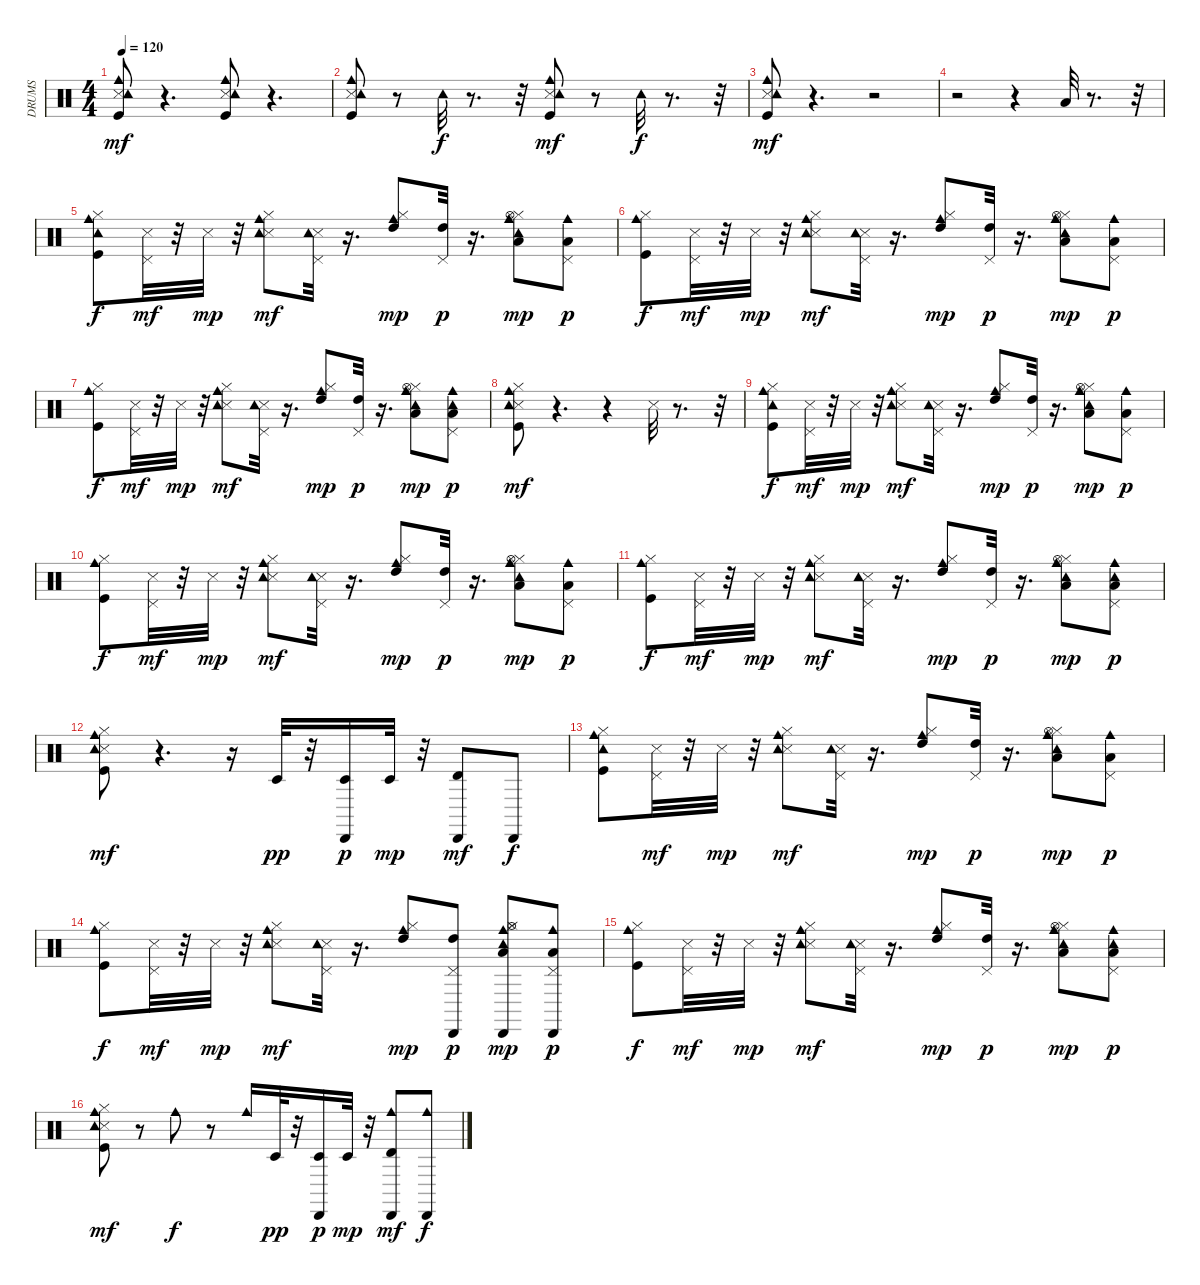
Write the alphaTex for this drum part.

\track ("DRUMS               " "DRUMS     ") {instrument percussion}
\staff {score}
\articulation defaults
\ts (4 4)
\tempo 120
\clef neutral
\ks c
("Kick (hit)" "Snare (side stick) 3" "Cowbell medium (hit)" "Tambourine (hit)").8{dy mf} r.4{d} ("Kick (hit)" "Snare (side stick) 3" "Tambourine (hit)" "Cowbell medium (hit)").8 r.4{d} |
("Kick (hit)" "Snare (side stick) 3" "Cowbell medium (hit)" "Tambourine (hit)").8 r.8 "Tambourine (hit)".32{dy f} r.8{d} r.32 ("Kick (hit)" "Snare (side stick) 3" "Tambourine (hit)" "Cowbell medium (hit)").8{dy mf} r.8 "Tambourine (hit)".32{dy f} r.8{d} r.32 |
("Kick (hit)" "Snare (side stick) 3" "Tambourine (hit)" "Cowbell medium (hit)").8{dy mf} r.4{d} r.2 |
r.2 r.4 "Low Floor Tom (hit)".32 r.8{d} r.32 |
("Kick (hit)" "Hi-Hat (closed)" "Tambourine (hit)" "Cowbell medium (hit)").8{dy f} ("Snare (side stick) 3" "Pedal Hi-Hat (hit)").32{dy mf} r.32 "Snare (side stick) 3".32{dy mp} r.32 ("Snare (side stick) 3" "Hi-Hat (closed)" "Tambourine (hit)" "Cowbell medium (hit)").8{dy mf} ("Snare (side stick) 3" "Pedal Hi-Hat (hit)" "Tambourine (hit)").32 r.16{d} ("High Tom (hit)" "Hi-Hat (closed)" "Cowbell medium (hit)").8{dy mp} ("High Tom (hit)" "Pedal Hi-Hat (hit)").32{dy p} r.16{d} ("Low Floor Tom (hit)" "Hi-Hat (closed)" "Tambourine (hit)" "Hi-Hat (open)" "Cowbell medium (hit)").8{dy mp} ("Low Floor Tom (hit)" "Pedal Hi-Hat (hit)" "Cowbell medium (hit)").8{dy p} |
("Kick (hit)" "Hi-Hat (closed)" "Cowbell medium (hit)").8{dy f} ("Snare (side stick) 3" "Pedal Hi-Hat (hit)").32{dy mf} r.32 "Snare (side stick) 3".32{dy mp} r.32 ("Snare (side stick) 3" "Hi-Hat (closed)" "Tambourine (hit)" "Cowbell medium (hit)").8{dy mf} ("Snare (side stick) 3" "Pedal Hi-Hat (hit)" "Tambourine (hit)").32 r.16{d} ("High Tom (hit)" "Hi-Hat (closed)" "Cowbell medium (hit)").8{dy mp} ("High Tom (hit)" "Pedal Hi-Hat (hit)").32{dy p} r.16{d} ("Low Floor Tom (hit)" "Hi-Hat (closed)" "Tambourine (hit)" "Hi-Hat (open)" "Cowbell medium (hit)").8{dy mp} ("Low Floor Tom (hit)" "Pedal Hi-Hat (hit)" "Cowbell medium (hit)").8{dy p} |
("Kick (hit)" "Hi-Hat (closed)" "Cowbell medium (hit)").8{dy f} ("Snare (side stick) 3" "Pedal Hi-Hat (hit)").32{dy mf} r.32 "Snare (side stick) 3".32{dy mp} r.32 ("Snare (side stick) 3" "Hi-Hat (closed)" "Tambourine (hit)" "Cowbell medium (hit)").8{dy mf} ("Snare (side stick) 3" "Pedal Hi-Hat (hit)" "Tambourine (hit)").32 r.16{d} ("High Tom (hit)" "Hi-Hat (closed)" "Cowbell medium (hit)").8{dy mp} ("High Tom (hit)" "Pedal Hi-Hat (hit)").32{dy p} r.16{d} ("Low Floor Tom (hit)" "Hi-Hat (closed)" "Tambourine (hit)" "Hi-Hat (open)" "Cowbell medium (hit)").8{dy mp} ("Low Floor Tom (hit)" "Pedal Hi-Hat (hit)" "Tambourine (hit)" "Cowbell medium (hit)").8{dy p} |
("Kick (hit)" "Snare (side stick) 3" "Hi-Hat (closed)" "Cowbell medium (hit)" "Tambourine (hit)").8{dy mf} r.4{d} r.4 "Snare (side stick) 3".32 r.8{d} r.32 |
("Kick (hit)" "Hi-Hat (closed)" "Tambourine (hit)" "Cowbell medium (hit)").8{dy f} ("Snare (side stick) 3" "Pedal Hi-Hat (hit)").32{dy mf} r.32 "Snare (side stick) 3".32{dy mp} r.32 ("Snare (side stick) 3" "Hi-Hat (closed)" "Tambourine (hit)" "Cowbell medium (hit)").8{dy mf} ("Snare (side stick) 3" "Pedal Hi-Hat (hit)" "Tambourine (hit)").32 r.16{d} ("High Tom (hit)" "Hi-Hat (closed)" "Cowbell medium (hit)").8{dy mp} ("High Tom (hit)" "Pedal Hi-Hat (hit)").32{dy p} r.16{d} ("Low Floor Tom (hit)" "Hi-Hat (closed)" "Hi-Hat (open)" "Cowbell medium (hit)" "Tambourine (hit)").8{dy mp} ("Low Floor Tom (hit)" "Pedal Hi-Hat (hit)" "Cowbell medium (hit)").8{dy p} |
("Kick (hit)" "Hi-Hat (closed)" "Cowbell medium (hit)").8{dy f} ("Snare (side stick) 3" "Pedal Hi-Hat (hit)").32{dy mf} r.32 "Snare (side stick) 3".32{dy mp} r.32 ("Snare (side stick) 3" "Hi-Hat (closed)" "Tambourine (hit)" "Cowbell medium (hit)").8{dy mf} ("Snare (side stick) 3" "Pedal Hi-Hat (hit)" "Tambourine (hit)").32 r.16{d} ("High Tom (hit)" "Hi-Hat (closed)" "Cowbell medium (hit)").8{dy mp} ("High Tom (hit)" "Pedal Hi-Hat (hit)").32{dy p} r.16{d} ("Low Floor Tom (hit)" "Hi-Hat (closed)" "Hi-Hat (open)" "Cowbell medium (hit)" "Tambourine (hit)").8{dy mp} ("Low Floor Tom (hit)" "Pedal Hi-Hat (hit)" "Cowbell medium (hit)").8{dy p} |
("Kick (hit)" "Hi-Hat (closed)" "Cowbell medium (hit)").8{dy f} ("Snare (side stick) 3" "Pedal Hi-Hat (hit)").32{dy mf} r.32 "Snare (side stick) 3".32{dy mp} r.32 ("Snare (side stick) 3" "Hi-Hat (closed)" "Tambourine (hit)" "Cowbell medium (hit)").8{dy mf} ("Snare (side stick) 3" "Pedal Hi-Hat (hit)" "Tambourine (hit)").32 r.16{d} ("High Tom (hit)" "Hi-Hat (closed)" "Cowbell medium (hit)").8{dy mp} ("High Tom (hit)" "Pedal Hi-Hat (hit)").32{dy p} r.16{d} ("Low Floor Tom (hit)" "Hi-Hat (closed)" "Tambourine (hit)" "Hi-Hat (open)" "Cowbell medium (hit)").8{dy mp} ("Low Floor Tom (hit)" "Pedal Hi-Hat (hit)" "Tambourine (hit)" "Cowbell medium (hit)").8{dy p} |
("Kick (hit)" "Snare (side stick) 3" "Hi-Hat (closed)" "Tambourine (hit)" "Cowbell medium (hit)").8{dy mf} r.4{d} r.16 "Timbale low (hit)".32{dy pp} r.32 ("Timbale low (hit)" "Cabasa (hit)").16{dy p} "Timbale low (hit)".32{dy mp} r.32 ("Timbale high (hit)" "Cabasa (hit)").8{dy mf} "Cabasa (hit)".8{dy f} |
("Kick (hit)" "Hi-Hat (closed)" "Tambourine (hit)" "Cowbell medium (hit)").8 ("Snare (side stick) 3" "Pedal Hi-Hat (hit)").32{dy mf} r.32 "Snare (side stick) 3".32{dy mp} r.32 ("Snare (side stick) 3" "Hi-Hat (closed)" "Tambourine (hit)" "Cowbell medium (hit)").8{dy mf} ("Snare (side stick) 3" "Pedal Hi-Hat (hit)" "Tambourine (hit)").32 r.16{d} ("High Tom (hit)" "Hi-Hat (closed)" "Cowbell medium (hit)").8{dy mp} ("High Tom (hit)" "Pedal Hi-Hat (hit)").32{dy p} r.16{d} ("Low Floor Tom (hit)" "Hi-Hat (closed)" "Tambourine (hit)" "Hi-Hat (open)" "Cowbell medium (hit)").8{dy mp} ("Low Floor Tom (hit)" "Pedal Hi-Hat (hit)" "Cowbell medium (hit)").8{dy p} |
("Kick (hit)" "Hi-Hat (closed)" "Cowbell medium (hit)").8{dy f} ("Snare (side stick) 3" "Pedal Hi-Hat (hit)").32{dy mf} r.32 "Snare (side stick) 3".32{dy mp} r.32 ("Snare (side stick) 3" "Hi-Hat (closed)" "Tambourine (hit)" "Cowbell medium (hit)").8{dy mf} ("Snare (side stick) 3" "Pedal Hi-Hat (hit)" "Tambourine (hit)").32 r.16{d} ("High Tom (hit)" "Hi-Hat (closed)" "Cowbell medium (hit)").8{dy mp} ("High Tom (hit)" "Pedal Hi-Hat (hit)" "Cabasa (hit)").8{dy p} ("Low Floor Tom (hit)" "Hi-Hat (closed)" "Tambourine (hit)" "Hi-Hat (open)" "Cowbell medium (hit)" "Cabasa (hit)").8{dy mp} ("Low Floor Tom (hit)" "Pedal Hi-Hat (hit)" "Cowbell medium (hit)" "Cabasa (hit)").8{dy p} |
("Kick (hit)" "Hi-Hat (closed)" "Cowbell medium (hit)").8{dy f} ("Snare (side stick) 3" "Pedal Hi-Hat (hit)").32{dy mf} r.32 "Snare (side stick) 3".32{dy mp} r.32 ("Snare (side stick) 3" "Hi-Hat (closed)" "Tambourine (hit)" "Cowbell medium (hit)").8{dy mf} ("Snare (side stick) 3" "Pedal Hi-Hat (hit)" "Tambourine (hit)").32 r.16{d} ("High Tom (hit)" "Hi-Hat (closed)" "Cowbell medium (hit)").8{dy mp} ("High Tom (hit)" "Pedal Hi-Hat (hit)").32{dy p} r.16{d} ("Low Floor Tom (hit)" "Hi-Hat (closed)" "Tambourine (hit)" "Hi-Hat (open)" "Cowbell medium (hit)").8{dy mp} ("Low Floor Tom (hit)" "Pedal Hi-Hat (hit)" "Tambourine (hit)" "Cowbell medium (hit)").8{dy p} |
("Kick (hit)" "Snare (side stick) 3" "Hi-Hat (closed)" "Tambourine (hit)" "Cowbell medium (hit)").8{dy mf} r.8 "Cowbell medium (hit)".8{dy f} r.8 "Cowbell medium (hit)".16 "Timbale low (hit)".32{dy pp} r.32 ("Timbale low (hit)" "Cabasa (hit)").16{dy p} "Timbale low (hit)".32{dy mp} r.32 ("Timbale high (hit)" "Cowbell medium (hit)" "Cabasa (hit)").8{dy mf} ("Cowbell medium (hit)" "Cabasa (hit)").8{dy f}
